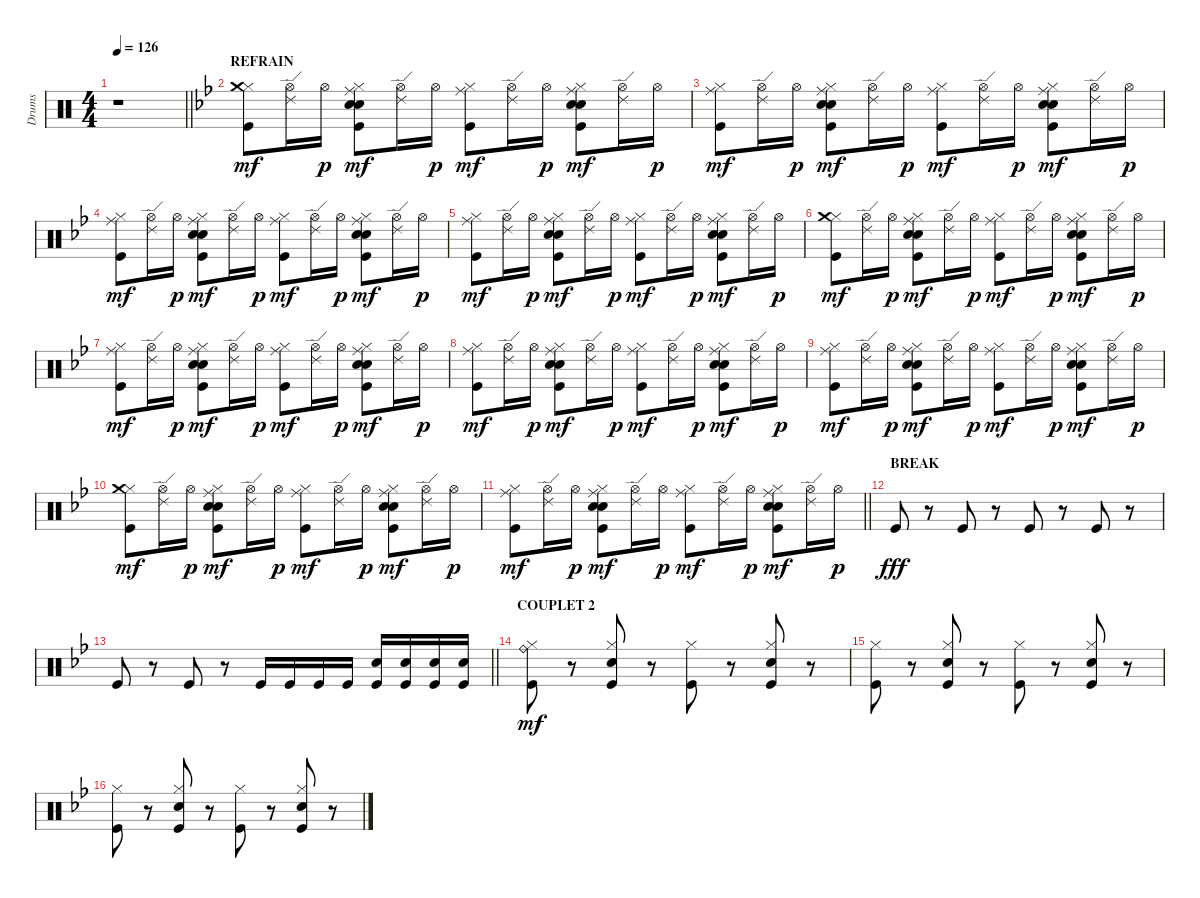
\track ("Drums" "Drums") {instrument percussion}
\staff {score}
\articulation defaults
\ts (4 4)
\tempo 126
\clef neutral
\barLineRight lightlight
\ks c
r.1{dy fff} |
\section ("" "REFRAIN")
\ks bb
("Kick (hit)" "Hi-Hat (closed)" "Crash medium (hit)").8{dy mf} ("Hi-Hat (open)" "Ride (edge) 2").16 "Hi-Hat (open)".16{dy p} ("Hi-Hat (closed)" "Kick (hit)" "Hand Clap (hit)" "Electric Snare (hit)" "Ride (middle)").8{dy mf} ("Hi-Hat (open)" "Ride (edge) 2").16 "Hi-Hat (open)".16{dy p} ("Hi-Hat (closed)" "Kick (hit)" "Ride (middle)").8{dy mf} ("Hi-Hat (open)" "Ride (edge) 2").16 "Hi-Hat (open)".16{dy p} ("Hi-Hat (closed)" "Kick (hit)" "Hand Clap (hit)" "Electric Snare (hit)" "Ride (middle)").8{dy mf} ("Hi-Hat (open)" "Ride (edge) 2").16 "Hi-Hat (open)".16{dy p} |
("Hi-Hat (closed)" "Kick (hit)" "Ride (middle)").8{dy mf} ("Hi-Hat (open)" "Ride (edge) 2").16 "Hi-Hat (open)".16{dy p} ("Hi-Hat (closed)" "Kick (hit)" "Hand Clap (hit)" "Electric Snare (hit)" "Ride (middle)").8{dy mf} ("Hi-Hat (open)" "Ride (edge) 2").16 "Hi-Hat (open)".16{dy p} ("Hi-Hat (closed)" "Kick (hit)" "Ride (middle)").8{dy mf} ("Hi-Hat (open)" "Ride (edge) 2").16 "Hi-Hat (open)".16{dy p} ("Hi-Hat (closed)" "Kick (hit)" "Hand Clap (hit)" "Electric Snare (hit)" "Ride (middle)").8{dy mf} ("Hi-Hat (open)" "Ride (edge) 2").16 "Hi-Hat (open)".16{dy p} |
("Hi-Hat (closed)" "Kick (hit)" "Ride (middle)").8{dy mf} ("Hi-Hat (open)" "Ride (edge) 2").16 "Hi-Hat (open)".16{dy p} ("Hi-Hat (closed)" "Kick (hit)" "Hand Clap (hit)" "Electric Snare (hit)" "Ride (middle)").8{dy mf} ("Hi-Hat (open)" "Ride (edge) 2").16 "Hi-Hat (open)".16{dy p} ("Hi-Hat (closed)" "Kick (hit)" "Ride (middle)").8{dy mf} ("Hi-Hat (open)" "Ride (edge) 2").16 "Hi-Hat (open)".16{dy p} ("Hi-Hat (closed)" "Kick (hit)" "Hand Clap (hit)" "Electric Snare (hit)" "Ride (middle)").8{dy mf} ("Hi-Hat (open)" "Ride (edge) 2").16 "Hi-Hat (open)".16{dy p} |
("Hi-Hat (closed)" "Kick (hit)" "Ride (middle)").8{dy mf} ("Hi-Hat (open)" "Ride (edge) 2").16 "Hi-Hat (open)".16{dy p} ("Hi-Hat (closed)" "Kick (hit)" "Hand Clap (hit)" "Electric Snare (hit)" "Ride (middle)").8{dy mf} ("Hi-Hat (open)" "Ride (edge) 2").16 "Hi-Hat (open)".16{dy p} ("Hi-Hat (closed)" "Kick (hit)" "Ride (middle)").8{dy mf} ("Hi-Hat (open)" "Ride (edge) 2").16 "Hi-Hat (open)".16{dy p} ("Hi-Hat (closed)" "Kick (hit)" "Hand Clap (hit)" "Electric Snare (hit)" "Ride (middle)").8{dy mf} ("Hi-Hat (open)" "Ride (edge) 2").16 "Hi-Hat (open)".16{dy p} |
("Hi-Hat (closed)" "Kick (hit)" "Crash medium (hit)").8{dy mf} ("Hi-Hat (open)" "Ride (edge) 2").16 "Hi-Hat (open)".16{dy p} ("Hi-Hat (closed)" "Kick (hit)" "Hand Clap (hit)" "Electric Snare (hit)" "Ride (middle)").8{dy mf} ("Hi-Hat (open)" "Ride (edge) 2").16 "Hi-Hat (open)".16{dy p} ("Hi-Hat (closed)" "Kick (hit)" "Ride (middle)").8{dy mf} ("Hi-Hat (open)" "Ride (edge) 2").16 "Hi-Hat (open)".16{dy p} ("Hi-Hat (closed)" "Kick (hit)" "Hand Clap (hit)" "Electric Snare (hit)" "Ride (middle)").8{dy mf} ("Hi-Hat (open)" "Ride (edge) 2").16 "Hi-Hat (open)".16{dy p} |
("Hi-Hat (closed)" "Kick (hit)" "Ride (middle)").8{dy mf} ("Hi-Hat (open)" "Ride (edge) 2").16 "Hi-Hat (open)".16{dy p} ("Hi-Hat (closed)" "Kick (hit)" "Hand Clap (hit)" "Electric Snare (hit)" "Ride (middle)").8{dy mf} ("Hi-Hat (open)" "Ride (edge) 2").16 "Hi-Hat (open)".16{dy p} ("Hi-Hat (closed)" "Kick (hit)" "Ride (middle)").8{dy mf} ("Hi-Hat (open)" "Ride (edge) 2").16 "Hi-Hat (open)".16{dy p} ("Hi-Hat (closed)" "Kick (hit)" "Hand Clap (hit)" "Electric Snare (hit)" "Ride (middle)").8{dy mf} ("Hi-Hat (open)" "Ride (edge) 2").16 "Hi-Hat (open)".16{dy p} |
("Hi-Hat (closed)" "Kick (hit)" "Ride (middle)").8{dy mf} ("Hi-Hat (open)" "Ride (edge) 2").16 "Hi-Hat (open)".16{dy p} ("Hi-Hat (closed)" "Kick (hit)" "Hand Clap (hit)" "Electric Snare (hit)" "Ride (middle)").8{dy mf} ("Hi-Hat (open)" "Ride (edge) 2").16 "Hi-Hat (open)".16{dy p} ("Hi-Hat (closed)" "Kick (hit)" "Ride (middle)").8{dy mf} ("Hi-Hat (open)" "Ride (edge) 2").16 "Hi-Hat (open)".16{dy p} ("Hi-Hat (closed)" "Kick (hit)" "Hand Clap (hit)" "Electric Snare (hit)" "Ride (middle)").8{dy mf} ("Hi-Hat (open)" "Ride (edge) 2").16 "Hi-Hat (open)".16{dy p} |
("Hi-Hat (closed)" "Kick (hit)" "Ride (middle)").8{dy mf} ("Hi-Hat (open)" "Ride (edge) 2").16 "Hi-Hat (open)".16{dy p} ("Hi-Hat (closed)" "Kick (hit)" "Hand Clap (hit)" "Electric Snare (hit)" "Ride (middle)").8{dy mf} ("Hi-Hat (open)" "Ride (edge) 2").16 "Hi-Hat (open)".16{dy p} ("Hi-Hat (closed)" "Kick (hit)" "Ride (middle)").8{dy mf} ("Hi-Hat (open)" "Ride (edge) 2").16 "Hi-Hat (open)".16{dy p} ("Hi-Hat (closed)" "Kick (hit)" "Hand Clap (hit)" "Electric Snare (hit)" "Ride (middle)").8{dy mf} ("Hi-Hat (open)" "Ride (edge) 2").16 "Hi-Hat (open)".16{dy p} |
("Hi-Hat (closed)" "Kick (hit)" "Crash medium (hit)").8{dy mf} ("Hi-Hat (open)" "Ride (edge) 2").16 "Hi-Hat (open)".16{dy p} ("Hi-Hat (closed)" "Kick (hit)" "Hand Clap (hit)" "Electric Snare (hit)" "Ride (middle)").8{dy mf} ("Hi-Hat (open)" "Ride (edge) 2").16 "Hi-Hat (open)".16{dy p} ("Hi-Hat (closed)" "Kick (hit)" "Ride (middle)").8{dy mf} ("Hi-Hat (open)" "Ride (edge) 2").16 "Hi-Hat (open)".16{dy p} ("Hi-Hat (closed)" "Kick (hit)" "Hand Clap (hit)" "Electric Snare (hit)" "Ride (middle)").8{dy mf} ("Hi-Hat (open)" "Ride (edge) 2").16 "Hi-Hat (open)".16{dy p} |
\barLineRight lightlight
("Hi-Hat (closed)" "Kick (hit)" "Ride (middle)").8{dy mf} ("Hi-Hat (open)" "Ride (edge) 2").16 "Hi-Hat (open)".16{dy p} ("Hi-Hat (closed)" "Kick (hit)" "Hand Clap (hit)" "Electric Snare (hit)" "Ride (middle)").8{dy mf} ("Hi-Hat (open)" "Ride (edge) 2").16 "Hi-Hat (open)".16{dy p} ("Hi-Hat (closed)" "Kick (hit)" "Ride (middle)").8{dy mf} ("Hi-Hat (open)" "Ride (edge) 2").16 "Hi-Hat (open)".16{dy p} ("Hi-Hat (closed)" "Kick (hit)" "Hand Clap (hit)" "Electric Snare (hit)" "Ride (middle)").8{dy mf} ("Hi-Hat (open)" "Ride (edge) 2").16 "Hi-Hat (open)".16{dy p} |
\section ("" "BREAK")
"Kick (hit)".8{dy fff} r.8 "Kick (hit)".8 r.8 "Kick (hit)".8 r.8 "Kick (hit)".8 r.8 |
\barLineRight lightlight "Kick (hit)".8
r.8 "Kick (hit)".8 r.8 "Kick (hit)".16 "Kick (hit)".16 "Kick (hit)".16 "Kick (hit)".16 ("Kick (hit)" "Snare (hit) 2").16 ("Kick (hit)" "Snare (hit) 2").16 ("Kick (hit)" "Snare (hit) 2").16 ("Kick (hit)" "Snare (hit) 2").16 |
\section ("" "COUPLET 2")
("Kick (hit)" "Hi-Hat (closed)" "Ride (bell)").8{dy mf} r.8 ("Kick (hit)" "Hand Clap (hit)" "Hi-Hat (closed)").8 r.8 ("Kick (hit)" "Hi-Hat (closed)").8 r.8 ("Kick (hit)" "Hand Clap (hit)" "Hi-Hat (closed)").8 r.8 |
("Kick (hit)" "Hi-Hat (closed)").8 r.8 ("Kick (hit)" "Hand Clap (hit)" "Hi-Hat (closed)").8 r.8 ("Kick (hit)" "Hi-Hat (closed)").8 r.8 ("Kick (hit)" "Hand Clap (hit)" "Hi-Hat (closed)").8 r.8 |
("Kick (hit)" "Hi-Hat (closed)").8 r.8 ("Kick (hit)" "Hand Clap (hit)" "Hi-Hat (closed)").8 r.8 ("Kick (hit)" "Hi-Hat (closed)").8 r.8 ("Kick (hit)" "Hand Clap (hit)" "Hi-Hat (closed)").8 r.8
